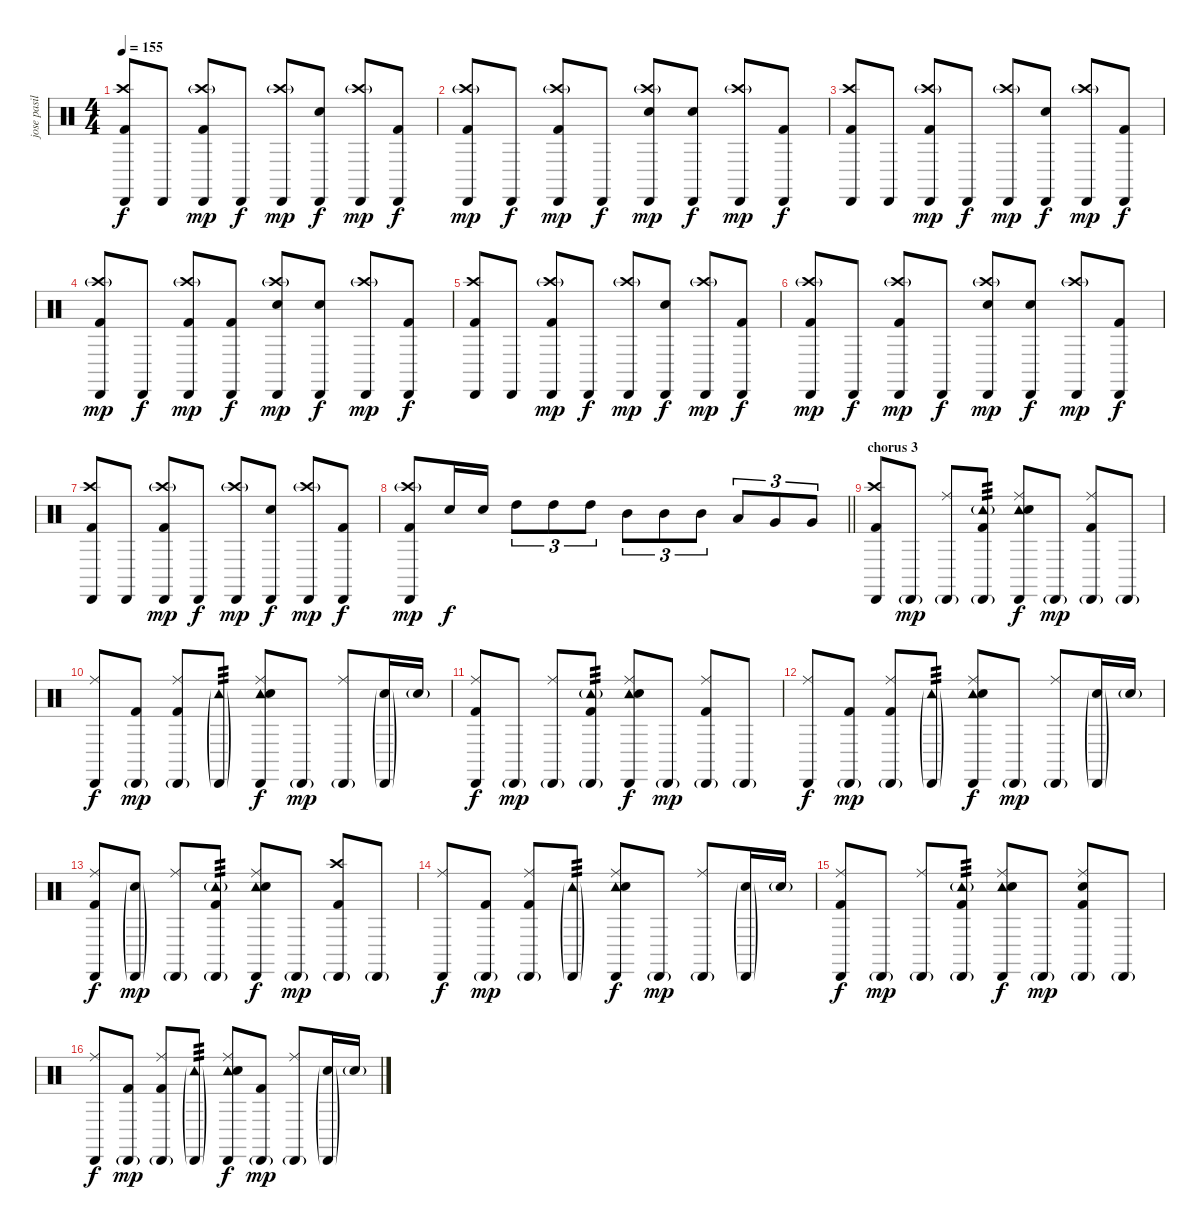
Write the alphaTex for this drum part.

\track ("jose pasillas" "jose pasil") {instrument percussion}
\staff {score}
\articulation defaults
\ts (4 4)
\tempo 155
\clef neutral
\ks c
("Cabasa (hit)" "Crash high (hit)" "Kick (hit) 2").8{dy f} "Cabasa (hit)".8 ("Cabasa (hit)" "Crash high (hit)"{g} "Kick (hit) 2").8{dy mp} "Cabasa (hit)".8{dy f} ("Cabasa (hit)" "Crash high (hit)"{g}).8{dy mp} ("Cabasa (hit)" "Snare (hit) 2").8{dy f} ("Cabasa (hit)" "Crash high (hit)"{g}).8{dy mp} ("Cabasa (hit)" "Kick (hit) 2").8{dy f} |
("Cabasa (hit)" "Crash high (hit)"{g} "Kick (hit) 2").8{dy mp} "Cabasa (hit)".8{dy f} ("Cabasa (hit)" "Crash high (hit)"{g} "Kick (hit) 2").8{dy mp} "Cabasa (hit)".8{dy f} ("Cabasa (hit)" "Crash high (hit)"{g} "Snare (hit) 2").8{dy mp} ("Cabasa (hit)" "Snare (hit) 2").8{dy f} ("Cabasa (hit)" "Crash high (hit)"{g}).8{dy mp} ("Cabasa (hit)" "Kick (hit) 2").8{dy f} |
("Cabasa (hit)" "Crash high (hit)" "Kick (hit) 2").8 "Cabasa (hit)".8 ("Cabasa (hit)" "Crash high (hit)"{g} "Kick (hit) 2").8{dy mp} "Cabasa (hit)".8{dy f} ("Cabasa (hit)" "Crash high (hit)"{g}).8{dy mp} ("Cabasa (hit)" "Snare (hit) 2").8{dy f} ("Cabasa (hit)" "Crash high (hit)"{g}).8{dy mp} ("Cabasa (hit)" "Kick (hit) 2").8{dy f} |
("Cabasa (hit)" "Crash high (hit)"{g} "Kick (hit) 2").8{dy mp} "Cabasa (hit)".8{dy f} ("Cabasa (hit)" "Crash high (hit)"{g} "Kick (hit) 2").8{dy mp} ("Cabasa (hit)" "Kick (hit) 2").8{dy f} ("Cabasa (hit)" "Crash high (hit)"{g} "Snare (hit) 2").8{dy mp} ("Cabasa (hit)" "Snare (hit) 2").8{dy f} ("Cabasa (hit)" "Crash high (hit)"{g}).8{dy mp} ("Cabasa (hit)" "Kick (hit) 2").8{dy f} |
("Cabasa (hit)" "Crash high (hit)" "Kick (hit) 2").8 "Cabasa (hit)".8 ("Cabasa (hit)" "Crash high (hit)"{g} "Kick (hit) 2").8{dy mp} "Cabasa (hit)".8{dy f} ("Cabasa (hit)" "Crash high (hit)"{g}).8{dy mp} ("Cabasa (hit)" "Snare (hit) 2").8{dy f} ("Cabasa (hit)" "Crash high (hit)"{g}).8{dy mp} ("Cabasa (hit)" "Kick (hit) 2").8{dy f} |
("Cabasa (hit)" "Crash high (hit)"{g} "Kick (hit) 2").8{dy mp} "Cabasa (hit)".8{dy f} ("Cabasa (hit)" "Crash high (hit)"{g} "Kick (hit) 2").8{dy mp} "Cabasa (hit)".8{dy f} ("Cabasa (hit)" "Crash high (hit)"{g} "Snare (hit) 2").8{dy mp} ("Cabasa (hit)" "Snare (hit) 2").8{dy f} ("Cabasa (hit)" "Crash high (hit)"{g}).8{dy mp} ("Cabasa (hit)" "Kick (hit) 2").8{dy f} |
("Cabasa (hit)" "Crash high (hit)" "Kick (hit) 2").8 "Cabasa (hit)".8 ("Cabasa (hit)" "Crash high (hit)"{g} "Kick (hit) 2").8{dy mp} "Cabasa (hit)".8{dy f} ("Cabasa (hit)" "Crash high (hit)"{g}).8{dy mp} ("Cabasa (hit)" "Snare (hit) 2").8{dy f} ("Cabasa (hit)" "Crash high (hit)"{g}).8{dy mp} ("Cabasa (hit)" "Kick (hit) 2").8{dy f} |
\barLineRight lightlight
("Cabasa (hit)" "Crash high (hit)"{g} "Kick (hit) 2").8{dy mp} "Snare (hit) 2".16{dy f} "Snare (hit) 2".16 "High Tom (hit)".8{tu (3 2)} "High Tom (hit)".8{tu (3 2)} "High Tom (hit)".8{tu (3 2)} "Mid Tom (hit)".8{tu (3 2)} "Mid Tom (hit)".8{tu (3 2)} "Mid Tom (hit)".8{tu (3 2)} "Low Tom (hit)".8{tu (3 2)} "Very Low Tom (hit)".8{tu (3 2)} "Very Low Tom (hit)".8{tu (3 2)} |
\section ("" "chorus 3")
("Cabasa (hit)" "Crash high (hit)" "Kick (hit) 2").8 "Cabasa (hit)"{g}.8{dy mp} ("Cabasa (hit)"{g} "Ride (middle)").8 ("Cabasa (hit)"{g} "Tambourine (hit)"{g} "Kick (hit) 2").8{tp 3} ("Cabasa (hit)" "Tambourine (hit)" "Ride (middle)" "Snare (hit) 2").8{dy f} "Cabasa (hit)"{g}.8{dy mp} ("Cabasa (hit)"{g} "Ride (middle)" "Kick (hit) 2").8 "Cabasa (hit)"{g}.8 |
("Cabasa (hit)" "Ride (middle)").8{dy f} ("Cabasa (hit)"{g} "Kick (hit) 2").8{dy mp} ("Cabasa (hit)"{g} "Ride (middle)" "Kick (hit) 2").8 ("Cabasa (hit)"{g} "Tambourine (hit)"{g}).8{tp 3} ("Cabasa (hit)" "Tambourine (hit)" "Ride (middle)" "Snare (hit) 2").8{dy f} "Cabasa (hit)"{g}.8{dy mp} ("Cabasa (hit)"{g} "Ride (middle)").8 ("Cabasa (hit)"{g} "Snare (hit) 2"{g}).16 "Snare (hit) 2"{g}.16 |
("Cabasa (hit)" "Ride (middle)" "Kick (hit) 2").8{dy f} "Cabasa (hit)"{g}.8{dy mp} ("Cabasa (hit)"{g} "Ride (middle)").8 ("Cabasa (hit)"{g} "Tambourine (hit)"{g} "Kick (hit) 2").8{tp 3} ("Cabasa (hit)" "Tambourine (hit)" "Ride (middle)" "Snare (hit) 2").8{dy f} "Cabasa (hit)"{g}.8{dy mp} ("Cabasa (hit)"{g} "Ride (middle)" "Kick (hit) 2").8 "Cabasa (hit)"{g}.8 |
("Cabasa (hit)" "Ride (middle)").8{dy f} ("Cabasa (hit)"{g} "Kick (hit) 2").8{dy mp} ("Cabasa (hit)"{g} "Ride (middle)" "Kick (hit) 2").8 ("Cabasa (hit)"{g} "Tambourine (hit)"{g}).8{tp 3} ("Cabasa (hit)" "Tambourine (hit)" "Ride (middle)" "Snare (hit) 2").8{dy f} "Cabasa (hit)"{g}.8{dy mp} ("Cabasa (hit)"{g} "Ride (middle)").8 ("Cabasa (hit)"{g} "Snare (hit) 2"{g}).16 "Snare (hit) 2"{g}.16 |
("Cabasa (hit)" "Ride (middle)" "Kick (hit) 2").8{dy f} ("Cabasa (hit)"{g} "Snare (hit) 2"{g}).8{dy mp} ("Cabasa (hit)"{g} "Ride (middle)").8 ("Cabasa (hit)"{g} "Tambourine (hit)"{g} "Kick (hit) 2").8{tp 3} ("Cabasa (hit)" "Tambourine (hit)" "Ride (middle)" "Snare (hit) 2").8{dy f} "Cabasa (hit)"{g}.8{dy mp} ("Cabasa (hit)"{g} "Crash high (hit)" "Kick (hit) 2").8 "Cabasa (hit)"{g}.8 |
("Cabasa (hit)" "Ride (middle)").8{dy f} ("Cabasa (hit)"{g} "Kick (hit) 2").8{dy mp} ("Cabasa (hit)"{g} "Ride (middle)" "Kick (hit) 2").8 ("Cabasa (hit)"{g} "Tambourine (hit)"{g}).8{tp 3} ("Cabasa (hit)" "Tambourine (hit)" "Ride (middle)" "Snare (hit) 2").8{dy f} "Cabasa (hit)"{g}.8{dy mp} ("Cabasa (hit)"{g} "Ride (middle)").8 ("Cabasa (hit)"{g} "Snare (hit) 2"{g}).16 "Snare (hit) 2"{g}.16 |
("Cabasa (hit)" "Ride (middle)" "Kick (hit) 2").8{dy f} "Cabasa (hit)"{g}.8{dy mp} ("Cabasa (hit)"{g} "Ride (middle)").8 ("Cabasa (hit)"{g} "Tambourine (hit)"{g} "Kick (hit) 2").8{tp 3} ("Cabasa (hit)" "Tambourine (hit)" "Ride (middle)" "Snare (hit) 2").8{dy f} "Cabasa (hit)"{g}.8{dy mp} ("Cabasa (hit)"{g} "Ride (middle)" "Snare (hit) 2" "Kick (hit) 2").8 "Cabasa (hit)"{g}.8 |
("Cabasa (hit)" "Ride (middle)").8{dy f} ("Cabasa (hit)"{g} "Kick (hit) 2").8{dy mp} ("Cabasa (hit)"{g} "Ride (middle)" "Kick (hit) 2").8 ("Cabasa (hit)"{g} "Tambourine (hit)"{g}).8{tp 3} ("Cabasa (hit)" "Tambourine (hit)" "Ride (middle)" "Snare (hit) 2").8{dy f} ("Cabasa (hit)"{g} "Kick (hit) 2").8{dy mp} ("Cabasa (hit)"{g} "Ride (middle)").8 ("Cabasa (hit)"{g} "Snare (hit) 2"{g}).16 "Snare (hit) 2"{g}.16
